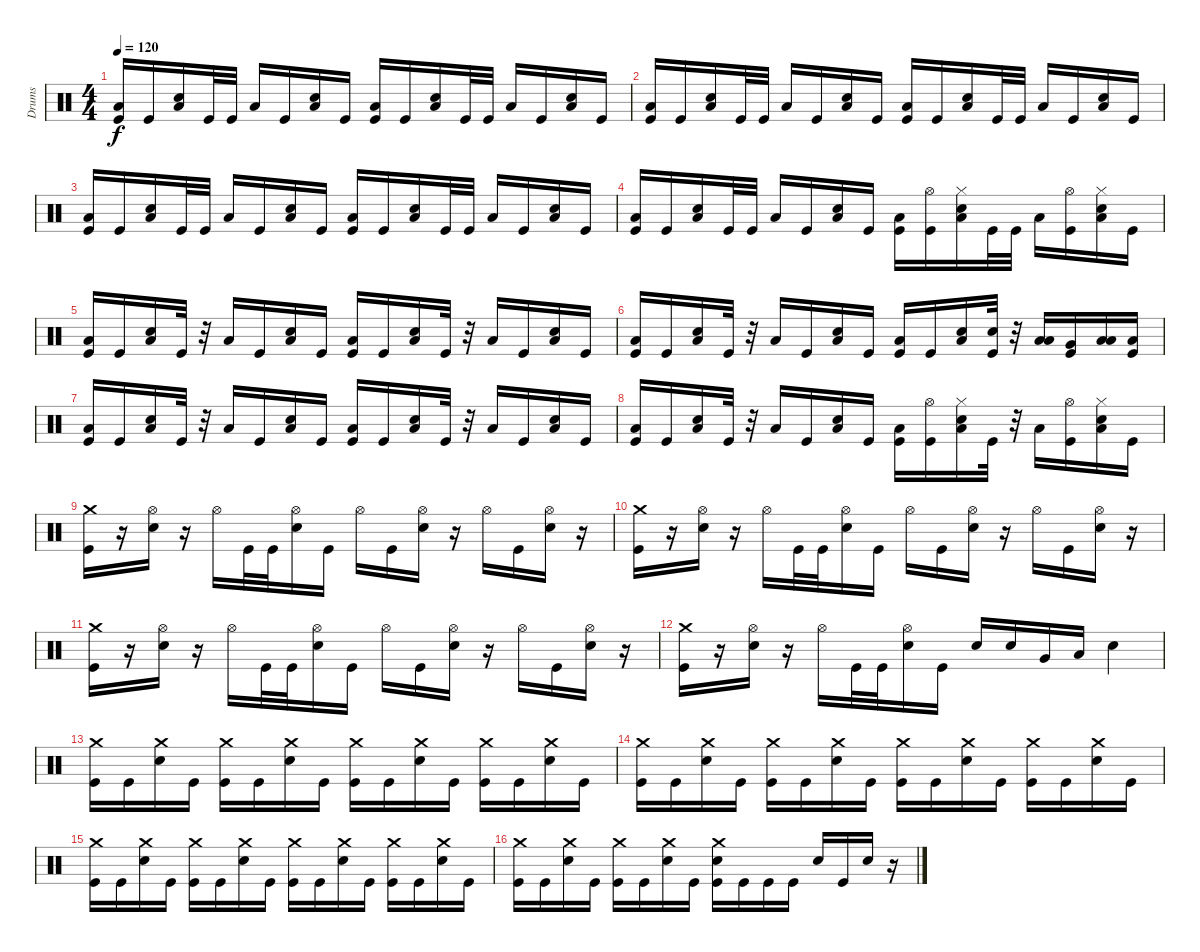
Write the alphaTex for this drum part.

\track ("Drums" "Drums") {instrument percussion}
\staff {score}
\articulation defaults
\ts (4 4)
\tempo 120
\clef neutral
\ks c
("Low Floor Tom (hit)" "Kick (hit)").16{dy f} "Kick (hit)".16 ("Electric Snare (hit)" "Low Floor Tom (hit)").16 "Kick (hit)".32 "Kick (hit)".32 "Low Floor Tom (hit)".16 "Kick (hit)".16 ("Electric Snare (hit)" "Low Floor Tom (hit)").16 "Kick (hit)".16 ("Low Floor Tom (hit)" "Kick (hit)").16 "Kick (hit)".16 ("Electric Snare (hit)" "Low Floor Tom (hit)").16 "Kick (hit)".32 "Kick (hit)".32 "Low Floor Tom (hit)".16 "Kick (hit)".16 ("Electric Snare (hit)" "Low Floor Tom (hit)").16 "Kick (hit)".16 |
("Low Floor Tom (hit)" "Kick (hit)").16 "Kick (hit)".16 ("Electric Snare (hit)" "Low Floor Tom (hit)").16 "Kick (hit)".32 "Kick (hit)".32 "Low Floor Tom (hit)".16 "Kick (hit)".16 ("Electric Snare (hit)" "Low Floor Tom (hit)").16 "Kick (hit)".16 ("Low Floor Tom (hit)" "Kick (hit)").16 "Kick (hit)".16 ("Electric Snare (hit)" "Low Floor Tom (hit)").16 "Kick (hit)".32 "Kick (hit)".32 "Low Floor Tom (hit)".16 "Kick (hit)".16 ("Electric Snare (hit)" "Low Floor Tom (hit)").16 "Kick (hit)".16 |
("Low Floor Tom (hit)" "Kick (hit)").16 "Kick (hit)".16 ("Electric Snare (hit)" "Low Floor Tom (hit)").16 "Kick (hit)".32 "Kick (hit)".32 "Low Floor Tom (hit)".16 "Kick (hit)".16 ("Electric Snare (hit)" "Low Floor Tom (hit)").16 "Kick (hit)".16 ("Low Floor Tom (hit)" "Kick (hit)").16 "Kick (hit)".16 ("Electric Snare (hit)" "Low Floor Tom (hit)").16 "Kick (hit)".32 "Kick (hit)".32 "Low Floor Tom (hit)".16 "Kick (hit)".16 ("Electric Snare (hit)" "Low Floor Tom (hit)").16 "Kick (hit)".16 |
("Low Floor Tom (hit)" "Kick (hit)").16 "Kick (hit)".16 ("Electric Snare (hit)" "Low Floor Tom (hit)").16 "Kick (hit)".32 "Kick (hit)".32 "Low Floor Tom (hit)".16 "Kick (hit)".16 ("Electric Snare (hit)" "Low Floor Tom (hit)").16 "Kick (hit)".16 ("Low Floor Tom (hit)" "Kick (hit)").16 ("Hi-Hat (open)" "Kick (hit)").16 ("Hi-Hat (closed)" "Electric Snare (hit)" "Low Floor Tom (hit)").16 "Kick (hit)".32 "Kick (hit)".32 "Low Floor Tom (hit)".16 ("Hi-Hat (open)" "Kick (hit)").16 ("Hi-Hat (closed)" "Electric Snare (hit)" "Low Floor Tom (hit)").16 "Kick (hit)".16 |
("Low Floor Tom (hit)" "Kick (hit)").16 "Kick (hit)".16 ("Electric Snare (hit)" "Low Floor Tom (hit)").16 "Kick (hit)".32 r.32 "Low Floor Tom (hit)".16 "Kick (hit)".16 ("Electric Snare (hit)" "Low Floor Tom (hit)").16 "Kick (hit)".16 ("Low Floor Tom (hit)" "Kick (hit)").16 "Kick (hit)".16 ("Electric Snare (hit)" "Low Floor Tom (hit)").16 "Kick (hit)".32 r.32 "Low Floor Tom (hit)".16 "Kick (hit)".16 ("Electric Snare (hit)" "Low Floor Tom (hit)").16 "Kick (hit)".16 |
("Low Floor Tom (hit)" "Kick (hit)").16 "Kick (hit)".16 ("Electric Snare (hit)" "Low Floor Tom (hit)").16 "Kick (hit)".32 r.32 "Low Floor Tom (hit)".16 "Kick (hit)".16 ("Electric Snare (hit)" "Low Floor Tom (hit)").16 "Kick (hit)".16 ("Low Floor Tom (hit)" "Kick (hit)").16 "Kick (hit)".16 ("Electric Snare (hit)" "Low Floor Tom (hit)").16 ("Electric Snare (hit)" "Kick (hit)").32 r.32 ("Low Tom (hit)" "Low Floor Tom (hit)").16 ("Very Low Tom (hit)" "Kick (hit)").16 ("Low Floor Tom (hit)" "Low Floor Tom (hit)").16 ("Low Floor Tom (hit)" "Kick (hit)").16 |
("Low Floor Tom (hit)" "Kick (hit)").16 "Kick (hit)".16 ("Electric Snare (hit)" "Low Floor Tom (hit)").16 "Kick (hit)".32 r.32 "Low Floor Tom (hit)".16 "Kick (hit)".16 ("Electric Snare (hit)" "Low Floor Tom (hit)").16 "Kick (hit)".16 ("Low Floor Tom (hit)" "Kick (hit)").16 "Kick (hit)".16 ("Electric Snare (hit)" "Low Floor Tom (hit)").16 "Kick (hit)".32 r.32 "Low Floor Tom (hit)".16 "Kick (hit)".16 ("Electric Snare (hit)" "Low Floor Tom (hit)").16 "Kick (hit)".16 |
("Low Floor Tom (hit)" "Kick (hit)").16 "Kick (hit)".16 ("Electric Snare (hit)" "Low Floor Tom (hit)").16 "Kick (hit)".32 r.32 "Low Floor Tom (hit)".16 "Kick (hit)".16 ("Electric Snare (hit)" "Low Floor Tom (hit)").16 "Kick (hit)".16 ("Low Floor Tom (hit)" "Kick (hit)").16 ("Hi-Hat (open)" "Kick (hit)").16 ("Hi-Hat (closed)" "Electric Snare (hit)" "Low Floor Tom (hit)").16 "Kick (hit)".32 r.32 "Low Floor Tom (hit)".16 ("Hi-Hat (open)" "Kick (hit)").16 ("Hi-Hat (closed)" "Electric Snare (hit)" "Low Floor Tom (hit)").16 "Kick (hit)".16 |
("Crash medium (hit)" "Kick (hit)").16 r.16 ("Hi-Hat (open)" "Electric Snare (hit)").16 r.16 "Hi-Hat (open)".16 "Kick (hit)".32 "Kick (hit)".32 ("Hi-Hat (open)" "Electric Snare (hit)").16 "Kick (hit)".16 "Hi-Hat (open)".16 "Kick (hit)".16 ("Hi-Hat (open)" "Electric Snare (hit)").16 r.16 "Hi-Hat (open)".16 "Kick (hit)".16 ("Hi-Hat (open)" "Electric Snare (hit)").16 r.16 |
("Crash medium (hit)" "Kick (hit)").16 r.16 ("Hi-Hat (open)" "Electric Snare (hit)").16 r.16 "Hi-Hat (open)".16 "Kick (hit)".32 "Kick (hit)".32 ("Hi-Hat (open)" "Electric Snare (hit)").16 "Kick (hit)".16 "Hi-Hat (open)".16 "Kick (hit)".16 ("Hi-Hat (open)" "Electric Snare (hit)").16 r.16 "Hi-Hat (open)".16 "Kick (hit)".16 ("Hi-Hat (open)" "Electric Snare (hit)").16 r.16 |
("Crash medium (hit)" "Kick (hit)").16 r.16 ("Hi-Hat (open)" "Electric Snare (hit)").16 r.16 "Hi-Hat (open)".16 "Kick (hit)".32 "Kick (hit)".32 ("Hi-Hat (open)" "Electric Snare (hit)").16 "Kick (hit)".16 "Hi-Hat (open)".16 "Kick (hit)".16 ("Hi-Hat (open)" "Electric Snare (hit)").16 r.16 "Hi-Hat (open)".16 "Kick (hit)".16 ("Hi-Hat (open)" "Electric Snare (hit)").16 r.16 |
("Crash medium (hit)" "Kick (hit)").16 r.16 ("Hi-Hat (open)" "Electric Snare (hit)").16 r.16 "Hi-Hat (open)".16 "Kick (hit)".32 "Kick (hit)".32 ("Hi-Hat (open)" "Electric Snare (hit)").16 "Kick (hit)".16 "Electric Snare (hit)".16 "Electric Snare (hit)".16 "Very Low Tom (hit)".16 "Low Floor Tom (hit)".16 "Electric Snare (hit)".4 |
("Crash medium (hit)" "Kick (hit)").16 "Kick (hit)".16 ("Crash medium (hit)" "Electric Snare (hit)").16 "Kick (hit)".16 ("Crash medium (hit)" "Kick (hit)").16 "Kick (hit)".16 ("Crash medium (hit)" "Electric Snare (hit)").16 "Kick (hit)".16 ("Crash medium (hit)" "Kick (hit)").16 "Kick (hit)".16 ("Crash medium (hit)" "Electric Snare (hit)").16 "Kick (hit)".16 ("Crash medium (hit)" "Kick (hit)").16 "Kick (hit)".16 ("Crash medium (hit)" "Electric Snare (hit)").16 "Kick (hit)".16 |
("Crash medium (hit)" "Kick (hit)").16 "Kick (hit)".16 ("Crash medium (hit)" "Electric Snare (hit)").16 "Kick (hit)".16 ("Crash medium (hit)" "Kick (hit)").16 "Kick (hit)".16 ("Crash medium (hit)" "Electric Snare (hit)").16 "Kick (hit)".16 ("Crash medium (hit)" "Kick (hit)").16 "Kick (hit)".16 ("Crash medium (hit)" "Electric Snare (hit)").16 "Kick (hit)".16 ("Crash medium (hit)" "Kick (hit)").16 "Kick (hit)".16 ("Crash medium (hit)" "Electric Snare (hit)").16 "Kick (hit)".16 |
("Crash medium (hit)" "Kick (hit)").16 "Kick (hit)".16 ("Crash medium (hit)" "Electric Snare (hit)").16 "Kick (hit)".16 ("Crash medium (hit)" "Kick (hit)").16 "Kick (hit)".16 ("Crash medium (hit)" "Electric Snare (hit)").16 "Kick (hit)".16 ("Crash medium (hit)" "Kick (hit)").16 "Kick (hit)".16 ("Crash medium (hit)" "Electric Snare (hit)").16 "Kick (hit)".16 ("Crash medium (hit)" "Kick (hit)").16 "Kick (hit)".16 ("Crash medium (hit)" "Electric Snare (hit)").16 "Kick (hit)".16 |
("Crash medium (hit)" "Kick (hit)").16 "Kick (hit)".16 ("Crash medium (hit)" "Electric Snare (hit)").16 "Kick (hit)".16 ("Crash medium (hit)" "Kick (hit)").16 "Kick (hit)".16 ("Crash medium (hit)" "Electric Snare (hit)").16 "Kick (hit)".16 ("Crash medium (hit)" "Electric Snare (hit)" "Kick (hit)").16 "Kick (hit)".16 "Kick (hit)".16 "Kick (hit)".16 "Electric Snare (hit)".16 "Kick (hit)".16 "Electric Snare (hit)".16 r.16
